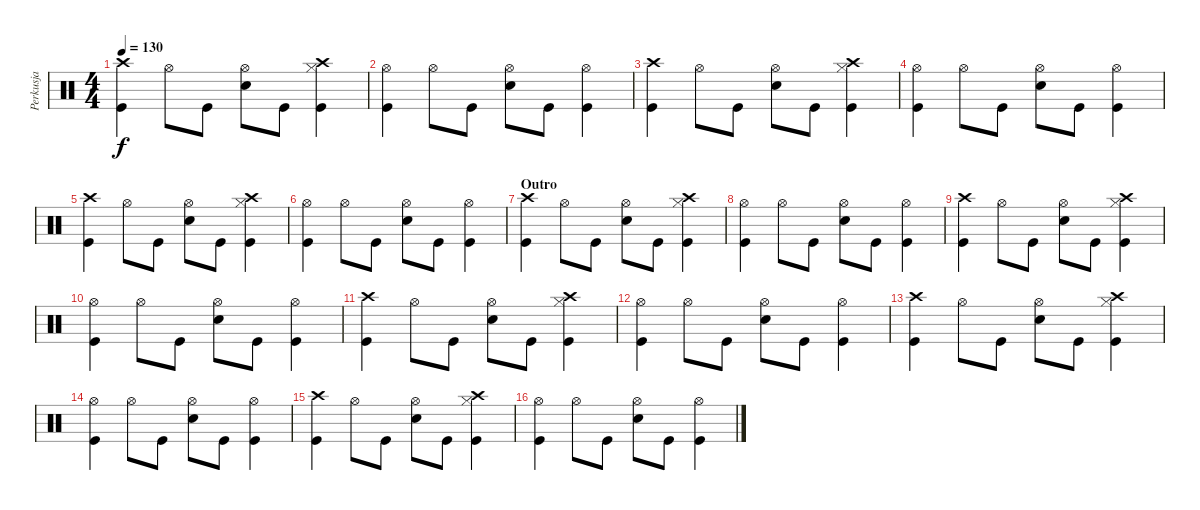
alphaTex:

\track ("Perkusja" "Perkusja") {instrument percussion}
\staff {score}
\articulation defaults
\ts (4 4)
\tempo 130
\clef neutral
\ks c
("Crash high (hit)" "Kick (hit)").4{dy f} "Hi-Hat (open)".8 "Kick (hit)".8 ("Hi-Hat (open)" "Electric Snare (hit)").8 "Kick (hit)".8 ("Crash high (hit)" "Hi-Hat (closed)" "Kick (hit)").4 |
("Hi-Hat (open)" "Kick (hit)").4 "Hi-Hat (open)".8 "Kick (hit)".8 ("Hi-Hat (open)" "Electric Snare (hit)").8 "Kick (hit)".8 ("Hi-Hat (open)" "Kick (hit)").4 |
("Crash high (hit)" "Kick (hit)").4 "Hi-Hat (open)".8 "Kick (hit)".8 ("Hi-Hat (open)" "Electric Snare (hit)").8 "Kick (hit)".8 ("Crash high (hit)" "Hi-Hat (closed)" "Kick (hit)").4 |
("Hi-Hat (open)" "Kick (hit)").4 "Hi-Hat (open)".8 "Kick (hit)".8 ("Hi-Hat (open)" "Electric Snare (hit)").8 "Kick (hit)".8 ("Hi-Hat (open)" "Kick (hit)").4 |
("Crash high (hit)" "Kick (hit)").4 "Hi-Hat (open)".8 "Kick (hit)".8 ("Hi-Hat (open)" "Electric Snare (hit)").8 "Kick (hit)".8 ("Crash high (hit)" "Hi-Hat (closed)" "Kick (hit)").4 |
("Hi-Hat (open)" "Kick (hit)").4 "Hi-Hat (open)".8 "Kick (hit)".8 ("Hi-Hat (open)" "Electric Snare (hit)").8 "Kick (hit)".8 ("Hi-Hat (open)" "Kick (hit)").4 |
\section ("" "Outro")
("Crash high (hit)" "Kick (hit)").4 "Hi-Hat (open)".8 "Kick (hit)".8 ("Hi-Hat (open)" "Electric Snare (hit)").8 "Kick (hit)".8 ("Crash high (hit)" "Hi-Hat (closed)" "Kick (hit)").4 |
("Hi-Hat (open)" "Kick (hit)").4 "Hi-Hat (open)".8 "Kick (hit)".8 ("Hi-Hat (open)" "Electric Snare (hit)").8 "Kick (hit)".8 ("Hi-Hat (open)" "Kick (hit)").4 |
("Crash high (hit)" "Kick (hit)").4 "Hi-Hat (open)".8 "Kick (hit)".8 ("Hi-Hat (open)" "Electric Snare (hit)").8 "Kick (hit)".8 ("Crash high (hit)" "Hi-Hat (closed)" "Kick (hit)").4 |
("Hi-Hat (open)" "Kick (hit)").4 "Hi-Hat (open)".8 "Kick (hit)".8 ("Hi-Hat (open)" "Electric Snare (hit)").8 "Kick (hit)".8 ("Hi-Hat (open)" "Kick (hit)").4 |
("Crash high (hit)" "Kick (hit)").4 "Hi-Hat (open)".8 "Kick (hit)".8 ("Hi-Hat (open)" "Electric Snare (hit)").8 "Kick (hit)".8 ("Crash high (hit)" "Hi-Hat (closed)" "Kick (hit)").4 |
("Hi-Hat (open)" "Kick (hit)").4 "Hi-Hat (open)".8 "Kick (hit)".8 ("Hi-Hat (open)" "Electric Snare (hit)").8 "Kick (hit)".8 ("Hi-Hat (open)" "Kick (hit)").4 |
("Crash high (hit)" "Kick (hit)").4 "Hi-Hat (open)".8 "Kick (hit)".8 ("Hi-Hat (open)" "Electric Snare (hit)").8 "Kick (hit)".8 ("Crash high (hit)" "Hi-Hat (closed)" "Kick (hit)").4 |
("Hi-Hat (open)" "Kick (hit)").4 "Hi-Hat (open)".8 "Kick (hit)".8 ("Hi-Hat (open)" "Electric Snare (hit)").8 "Kick (hit)".8 ("Hi-Hat (open)" "Kick (hit)").4 |
("Crash high (hit)" "Kick (hit)").4{volume 5} "Hi-Hat (open)".8 "Kick (hit)".8 ("Hi-Hat (open)" "Electric Snare (hit)").8 "Kick (hit)".8 ("Crash high (hit)" "Hi-Hat (closed)" "Kick (hit)").4 |
("Hi-Hat (open)" "Kick (hit)").4 "Hi-Hat (open)".8 "Kick (hit)".8 ("Hi-Hat (open)" "Electric Snare (hit)").8 "Kick (hit)".8 ("Hi-Hat (open)" "Kick (hit)").4
